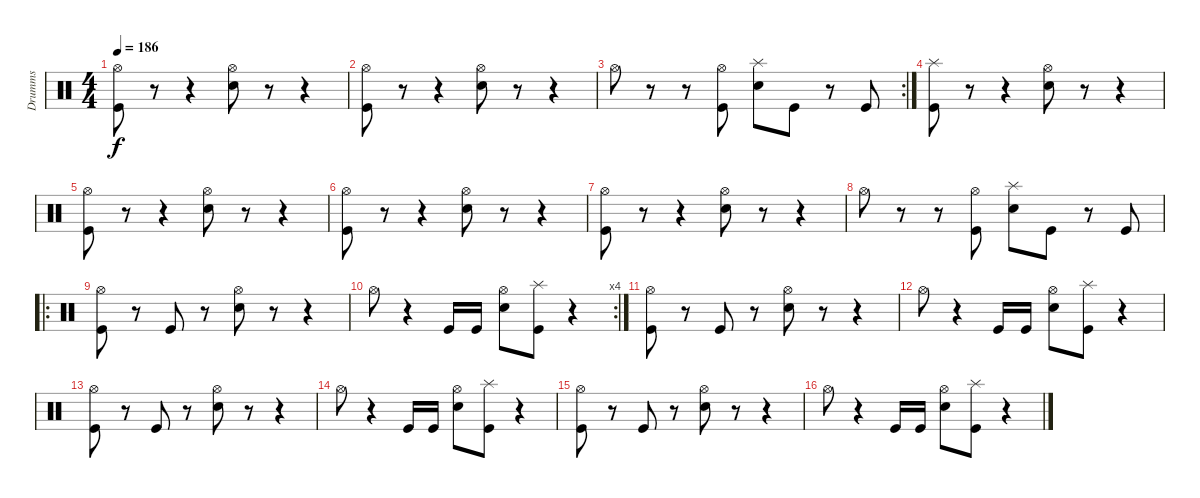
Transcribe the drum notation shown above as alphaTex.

\track ("Drumms" "Drumms") {instrument percussion}
\staff {score}
\articulation defaults
\ts (4 4)
\tempo 186
\clef neutral
\ks c
("Hi-Hat (open)" "Kick (hit)").8{dy f} r.8 r.4 ("Hi-Hat (open)" "Snare (hit) 2").8 r.8 r.4 |
("Hi-Hat (open)" "Kick (hit)").8 r.8 r.4 ("Hi-Hat (open)" "Snare (hit) 2").8 r.8 r.4 |
\rc 2 "Hi-Hat (open)".8
r.8 r.8 ("Hi-Hat (open)" "Kick (hit)").8 ("Splash (hit)" "Snare (hit) 2").8 "Kick (hit)".8 r.8 "Kick (hit)".8 |
("Splash (hit)" "Kick (hit)").8 r.8 r.4 ("Hi-Hat (open)" "Snare (hit) 2").8 r.8 r.4 |
("Hi-Hat (open)" "Kick (hit)").8 r.8 r.4 ("Hi-Hat (open)" "Snare (hit) 2").8 r.8 r.4 |
("Hi-Hat (open)" "Kick (hit)").8 r.8 r.4 ("Hi-Hat (open)" "Snare (hit) 2").8 r.8 r.4 |
("Hi-Hat (open)" "Kick (hit)").8 r.8 r.4 ("Hi-Hat (open)" "Snare (hit) 2").8 r.8 r.4 |
"Hi-Hat (open)".8 r.8 r.8 ("Hi-Hat (open)" "Kick (hit)").8 ("Splash (hit)" "Snare (hit) 2").8 "Kick (hit)".8 r.8 "Kick (hit)".8 |
\ro
("Hi-Hat (open)" "Kick (hit)").8 r.8 "Kick (hit)".8 r.8 ("Hi-Hat (open)" "Snare (hit) 2").8 r.8 r.4 |
\rc 4 "Hi-Hat (open)".8
r.4 "Kick (hit)".16 "Kick (hit)".16 ("Hi-Hat (open)" "Snare (hit) 2").8 ("Splash (hit)" "Kick (hit)").8 r.4 |
("Hi-Hat (open)" "Kick (hit)").8 r.8 "Kick (hit)".8 r.8 ("Hi-Hat (open)" "Snare (hit) 2").8 r.8 r.4 |
"Hi-Hat (open)".8 r.4 "Kick (hit)".16 "Kick (hit)".16 ("Hi-Hat (open)" "Snare (hit) 2").8 ("Splash (hit)" "Kick (hit)").8 r.4 |
("Hi-Hat (open)" "Kick (hit)").8 r.8 "Kick (hit)".8 r.8 ("Hi-Hat (open)" "Snare (hit) 2").8 r.8 r.4 |
"Hi-Hat (open)".8 r.4 "Kick (hit)".16 "Kick (hit)".16 ("Hi-Hat (open)" "Snare (hit) 2").8 ("Splash (hit)" "Kick (hit)").8 r.4 |
("Hi-Hat (open)" "Kick (hit)").8 r.8 "Kick (hit)".8 r.8 ("Hi-Hat (open)" "Snare (hit) 2").8 r.8 r.4 |
"Hi-Hat (open)".8 r.4 "Kick (hit)".16 "Kick (hit)".16 ("Hi-Hat (open)" "Snare (hit) 2").8 ("Splash (hit)" "Kick (hit)").8 r.4
